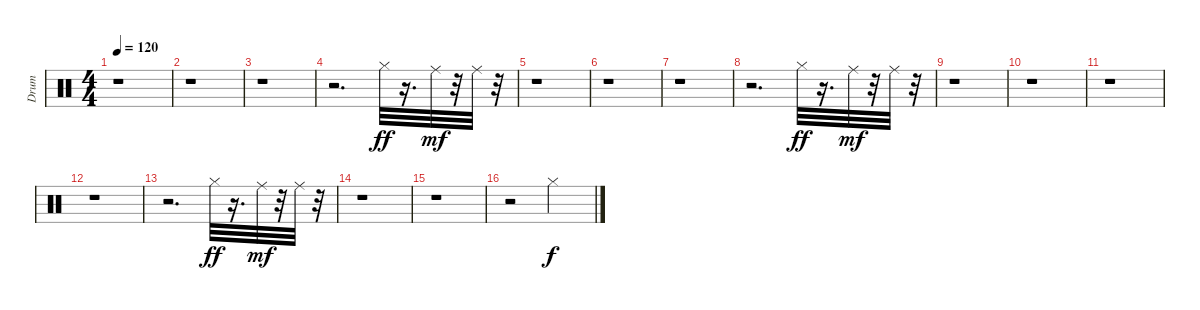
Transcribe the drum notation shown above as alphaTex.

\track ("Drum" "Drum") {instrument percussion}
\staff {score}
\articulation defaults
\ts (4 4)
\tempo 120
\clef neutral
\ks c
r.1{dy ff} |
r.1 |
r.1 |
r.2{d} "Hi-Hat (closed)".32 r.16{d} "Ride (middle)".32{dy mf} r.32 "Ride (middle)".32 r.32 |
r.1 |
r.1 |
r.1 |
r.2{d} "Hi-Hat (closed)".32{dy ff} r.16{d} "Ride (middle)".32{dy mf} r.32 "Ride (middle)".32 r.32 |
r.1 |
r.1 |
r.1 |
r.1 |
r.2{d} "Hi-Hat (closed)".32{dy ff} r.16{d} "Ride (middle)".32{dy mf} r.32 "Ride (middle)".32 r.32 |
r.1 |
r.1 |
r.2 "Hi-Hat (closed)".2{dy f}
